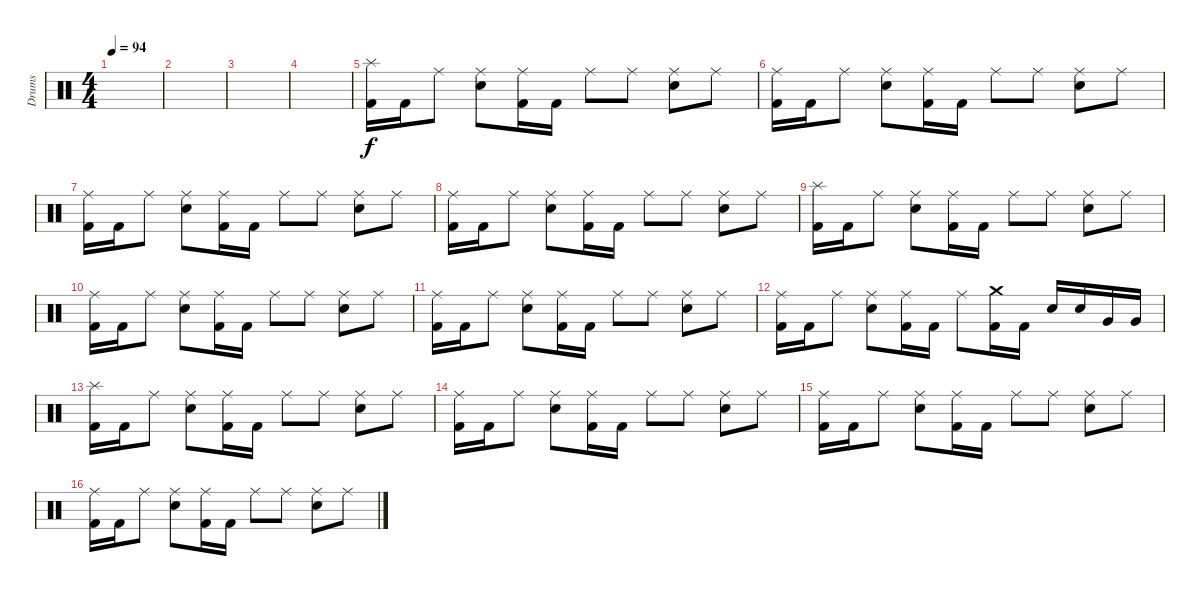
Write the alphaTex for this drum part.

\track ("Drums" "Drums") {instrument percussion}
\staff {score}
\articulation defaults
\ts (4 4)
\tempo 94
\clef neutral
\ks c
|
|
|
|
("Splash (hit)" "Kick (hit) 2").16 "Kick (hit) 2".16 "Ride (middle)".8 ("Ride (middle)" "Electric Snare (hit)").8 ("Ride (middle)" "Kick (hit) 2").16 "Kick (hit) 2".16 "Ride (middle)".8 "Ride (middle)".8 ("Ride (middle)" "Electric Snare (hit)").8 "Ride (middle)".8 |
("Ride (middle)" "Kick (hit) 2").16 "Kick (hit) 2".16 "Ride (middle)".8 ("Ride (middle)" "Electric Snare (hit)").8 ("Ride (middle)" "Kick (hit) 2").16 "Kick (hit) 2".16 "Ride (middle)".8 "Ride (middle)".8 ("Ride (middle)" "Electric Snare (hit)").8 "Ride (middle)".8 |
("Ride (middle)" "Kick (hit) 2").16 "Kick (hit) 2".16 "Ride (middle)".8 ("Ride (middle)" "Electric Snare (hit)").8 ("Ride (middle)" "Kick (hit) 2").16 "Kick (hit) 2".16 "Ride (middle)".8 "Ride (middle)".8 ("Ride (middle)" "Electric Snare (hit)").8 "Ride (middle)".8 |
("Ride (middle)" "Kick (hit) 2").16 "Kick (hit) 2".16 "Ride (middle)".8 ("Ride (middle)" "Electric Snare (hit)").8 ("Ride (middle)" "Kick (hit) 2").16 "Kick (hit) 2".16 "Ride (middle)".8 "Ride (middle)".8 ("Ride (middle)" "Electric Snare (hit)").8 "Ride (middle)".8 |
("Splash (hit)" "Kick (hit) 2").16 "Kick (hit) 2".16 "Ride (middle)".8 ("Ride (middle)" "Electric Snare (hit)").8 ("Ride (middle)" "Kick (hit) 2").16 "Kick (hit) 2".16 "Ride (middle)".8 "Ride (middle)".8 ("Ride (middle)" "Electric Snare (hit)").8 "Ride (middle)".8 |
("Ride (middle)" "Kick (hit) 2").16 "Kick (hit) 2".16 "Ride (middle)".8 ("Ride (middle)" "Electric Snare (hit)").8 ("Ride (middle)" "Kick (hit) 2").16 "Kick (hit) 2".16 "Ride (middle)".8 "Ride (middle)".8 ("Ride (middle)" "Electric Snare (hit)").8 "Ride (middle)".8 |
("Ride (middle)" "Kick (hit) 2").16 "Kick (hit) 2".16 "Ride (middle)".8 ("Ride (middle)" "Electric Snare (hit)").8 ("Ride (middle)" "Kick (hit) 2").16 "Kick (hit) 2".16 "Ride (middle)".8 "Ride (middle)".8 ("Ride (middle)" "Electric Snare (hit)").8 "Ride (middle)".8 |
("Ride (middle)" "Kick (hit) 2").16 "Kick (hit) 2".16 "Ride (middle)".8 ("Ride (middle)" "Electric Snare (hit)").8 ("Ride (middle)" "Kick (hit) 2").16 "Kick (hit) 2".16 "Ride (middle)".8 ("Crash medium (hit)" "Kick (hit) 2").16 "Kick (hit) 2".16 "Electric Snare (hit)".16 "Electric Snare (hit)".16 "Very Low Tom (hit)".16 "Very Low Tom (hit)".16 |
("Splash (hit)" "Kick (hit) 2").16 "Kick (hit) 2".16 "Ride (middle)".8 ("Ride (middle)" "Electric Snare (hit)").8 ("Ride (middle)" "Kick (hit) 2").16 "Kick (hit) 2".16 "Ride (middle)".8 "Ride (middle)".8 ("Ride (middle)" "Electric Snare (hit)").8 "Ride (middle)".8 |
("Ride (middle)" "Kick (hit) 2").16 "Kick (hit) 2".16 "Ride (middle)".8 ("Ride (middle)" "Electric Snare (hit)").8 ("Ride (middle)" "Kick (hit) 2").16 "Kick (hit) 2".16 "Ride (middle)".8 "Ride (middle)".8 ("Ride (middle)" "Electric Snare (hit)").8 "Ride (middle)".8 |
("Ride (middle)" "Kick (hit) 2").16 "Kick (hit) 2".16 "Ride (middle)".8 ("Ride (middle)" "Electric Snare (hit)").8 ("Ride (middle)" "Kick (hit) 2").16 "Kick (hit) 2".16 "Ride (middle)".8 "Ride (middle)".8 ("Ride (middle)" "Electric Snare (hit)").8 "Ride (middle)".8 |
("Ride (middle)" "Kick (hit) 2").16 "Kick (hit) 2".16 "Ride (middle)".8 ("Ride (middle)" "Electric Snare (hit)").8 ("Ride (middle)" "Kick (hit) 2").16 "Kick (hit) 2".16 "Ride (middle)".8 "Ride (middle)".8 ("Ride (middle)" "Electric Snare (hit)").8 "Ride (middle)".8
